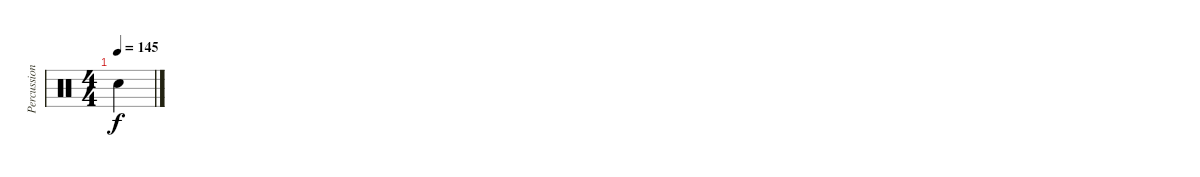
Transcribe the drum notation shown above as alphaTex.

\track ("Percussion" "Percussion") {instrument percussion}
\staff {score}
\articulation defaults
\ts (4 4)
\tempo 145
\clef neutral
\ks c "Snare (hit)"{t}.4{dy f}
